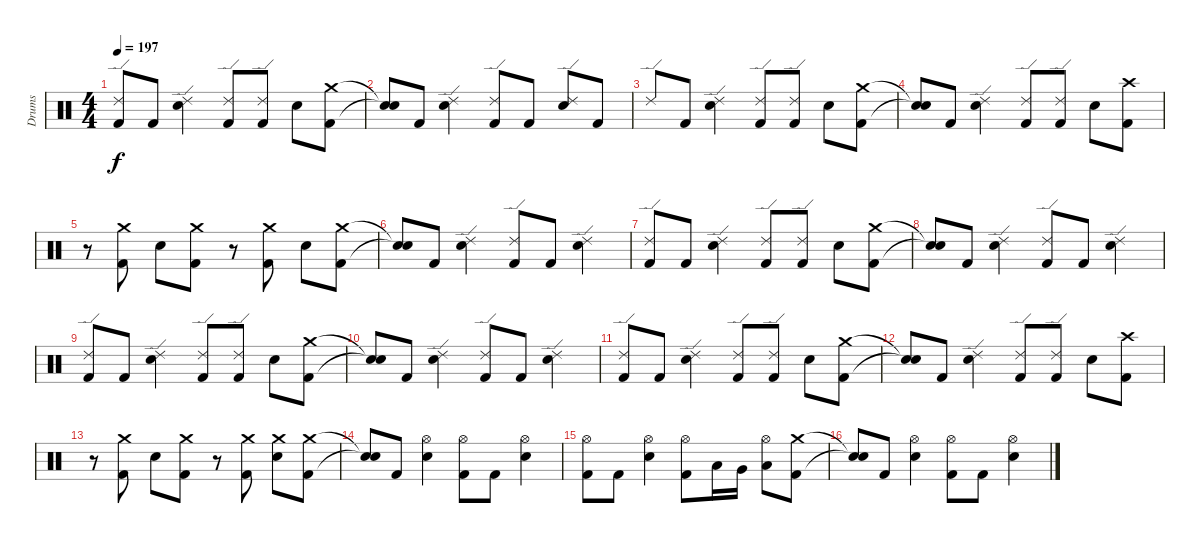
\track ("Drums" "Drums") {instrument percussion}
\staff {score}
\articulation defaults
\ts (4 4)
\tempo 197
\clef neutral
\ks c
("Ride (edge) 2" "Kick (hit) 2").8{dy f} "Kick (hit) 2".8 ("Ride (edge) 2" "Electric Snare (hit)").4 ("Ride (edge) 2" "Kick (hit) 2").8 ("Ride (edge) 2" "Kick (hit) 2").8 "Electric Snare (hit)".8 ("Crash medium (hit)" "Kick (hit) 2").8 |
("Snare (hit)"{t} "Snare (hit)"{t}).8 "Kick (hit) 2".8 ("Ride (edge) 2" "Electric Snare (hit)").4 ("Ride (edge) 2" "Kick (hit) 2").8 "Kick (hit) 2".8 ("Ride (edge) 2" "Electric Snare (hit)").8 "Kick (hit) 2".8 |
"Ride (edge) 2".8 "Kick (hit) 2".8 ("Ride (edge) 2" "Electric Snare (hit)").4 ("Ride (edge) 2" "Kick (hit) 2").8 ("Ride (edge) 2" "Kick (hit) 2").8 "Electric Snare (hit)".8 ("Crash medium (hit)" "Kick (hit) 2").8 |
("Snare (hit)"{t} "Snare (hit)"{t}).8 "Kick (hit) 2".8 ("Ride (edge) 2" "Electric Snare (hit)").4 ("Ride (edge) 2" "Kick (hit) 2").8 ("Ride (edge) 2" "Kick (hit) 2").8 "Electric Snare (hit)".8 ("Crash high (hit)" "Kick (hit) 2").8 |
r.8 ("Crash medium (hit)" "Kick (hit) 2").8 "Electric Snare (hit)".8 ("Crash medium (hit)" "Kick (hit) 2").8 r.8 ("Crash medium (hit)" "Kick (hit) 2").8 "Electric Snare (hit)".8 ("Crash medium (hit)" "Kick (hit) 2").8 |
\section ("" "")
("Snare (hit)"{t} "Snare (hit)"{t}).8 "Kick (hit) 2".8 ("Ride (edge) 2" "Electric Snare (hit)").4 ("Ride (edge) 2" "Kick (hit) 2").8 "Kick (hit) 2".8 ("Ride (edge) 2" "Electric Snare (hit)").4 |
("Ride (edge) 2" "Kick (hit) 2").8 "Kick (hit) 2".8 ("Ride (edge) 2" "Electric Snare (hit)").4 ("Ride (edge) 2" "Kick (hit) 2").8 ("Ride (edge) 2" "Kick (hit) 2").8 "Electric Snare (hit)".8 ("Crash medium (hit)" "Kick (hit) 2").8 |
("Snare (hit)"{t} "Snare (hit)"{t}).8 "Kick (hit) 2".8 ("Ride (edge) 2" "Electric Snare (hit)").4 ("Ride (edge) 2" "Kick (hit) 2").8 "Kick (hit) 2".8 ("Ride (edge) 2" "Electric Snare (hit)").4 |
("Ride (edge) 2" "Kick (hit) 2").8 "Kick (hit) 2".8 ("Ride (edge) 2" "Electric Snare (hit)").4 ("Ride (edge) 2" "Kick (hit) 2").8 ("Ride (edge) 2" "Kick (hit) 2").8 "Electric Snare (hit)".8 ("Crash medium (hit)" "Kick (hit) 2").8 |
("Snare (hit)"{t} "Snare (hit)"{t}).8 "Kick (hit) 2".8 ("Ride (edge) 2" "Electric Snare (hit)").4 ("Ride (edge) 2" "Kick (hit) 2").8 "Kick (hit) 2".8 ("Ride (edge) 2" "Electric Snare (hit)").4 |
("Ride (edge) 2" "Kick (hit) 2").8 "Kick (hit) 2".8 ("Ride (edge) 2" "Electric Snare (hit)").4 ("Ride (edge) 2" "Kick (hit) 2").8 ("Ride (edge) 2" "Kick (hit) 2").8 "Electric Snare (hit)".8 ("Crash medium (hit)" "Kick (hit) 2").8 |
("Snare (hit)"{t} "Snare (hit)"{t}).8 "Kick (hit) 2".8 ("Ride (edge) 2" "Electric Snare (hit)").4 ("Ride (edge) 2" "Kick (hit) 2").8 ("Ride (edge) 2" "Kick (hit) 2").8 "Electric Snare (hit)".8 ("Crash high (hit)" "Kick (hit) 2").8 |
r.8 ("Crash medium (hit)" "Kick (hit) 2").8 "Electric Snare (hit)".8 ("Crash medium (hit)" "Kick (hit) 2").8 r.8 ("Crash medium (hit)" "Kick (hit) 2").8 ("Crash medium (hit)" "Electric Snare (hit)").8 ("Crash medium (hit)" "Kick (hit) 2").8 |
\section ("" "")
("Snare (hit)"{t} "Snare (hit)"{t}).8 "Kick (hit) 2".8 ("Hi-Hat (open)" "Electric Snare (hit)").4 ("Hi-Hat (open)" "Kick (hit) 2").8 "Kick (hit) 2".8 ("Hi-Hat (open)" "Electric Snare (hit)").4 |
("Hi-Hat (open)" "Kick (hit) 2").8 "Kick (hit) 2".8 ("Hi-Hat (open)" "Electric Snare (hit)").4 ("Hi-Hat (open)" "Kick (hit) 2").8 "Low Tom (hit)".16 "Very Low Tom (hit)".16 ("Hi-Hat (open)" "Low Floor Tom (hit)").8 ("Crash medium (hit)" "Kick (hit) 2").8 |
("Snare (hit)"{t} "Snare (hit)"{t}).8 "Kick (hit) 2".8 ("Hi-Hat (open)" "Electric Snare (hit)").4 ("Hi-Hat (open)" "Kick (hit) 2").8 "Kick (hit) 2".8 ("Hi-Hat (open)" "Electric Snare (hit)").4
